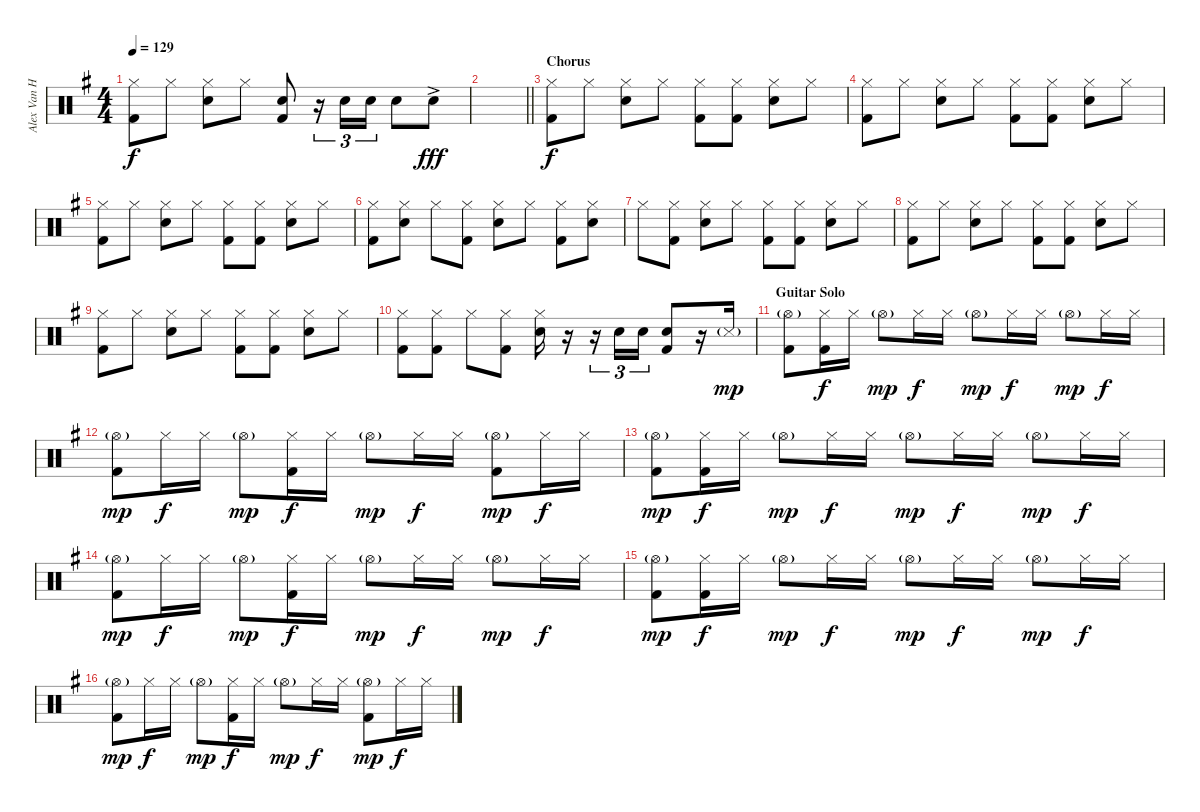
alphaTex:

\track ("Alex Van Halen" "Alex Van H") {instrument percussion}
\staff {score}
\articulation defaults
\ts (4 4)
\tempo 129
\clef neutral
\ks eminor
("Hi-Hat (closed)" "Kick (hit) 2").8{dy f} "Hi-Hat (closed)".8 ("Hi-Hat (closed)" "Snare (hit) 2").8 "Hi-Hat (closed)".8 ("Snare (hit) 2" "Kick (hit) 2").8 r.16{tu (3 2)} "Electric Snare (hit)".16{tu (3 2)} "Electric Snare (hit)".16{tu (3 2)} "Electric Snare (hit)".8 "Snare (hit) 2"{ac}.8{dy fff} |
\barLineRight lightlight
|
\section ("" "Chorus")
("Hi-Hat (closed)" "Kick (hit) 2").8{dy f} "Hi-Hat (closed)".8 ("Hi-Hat (closed)" "Snare (hit) 2").8 "Hi-Hat (closed)".8 ("Hi-Hat (closed)" "Kick (hit) 2").8 ("Hi-Hat (closed)" "Kick (hit) 2").8 ("Hi-Hat (closed)" "Snare (hit) 2").8 "Hi-Hat (closed)".8 |
("Hi-Hat (closed)" "Kick (hit) 2").8 "Hi-Hat (closed)".8 ("Hi-Hat (closed)" "Snare (hit) 2").8 "Hi-Hat (closed)".8 ("Hi-Hat (closed)" "Kick (hit) 2").8 ("Hi-Hat (closed)" "Kick (hit) 2").8 ("Hi-Hat (closed)" "Snare (hit) 2").8 "Hi-Hat (closed)".8 |
("Hi-Hat (closed)" "Kick (hit) 2").8 "Hi-Hat (closed)".8 ("Hi-Hat (closed)" "Snare (hit) 2").8 "Hi-Hat (closed)".8 ("Hi-Hat (closed)" "Kick (hit) 2").8 ("Hi-Hat (closed)" "Kick (hit) 2").8 ("Hi-Hat (closed)" "Snare (hit) 2").8 "Hi-Hat (closed)".8 |
("Hi-Hat (closed)" "Kick (hit) 2").8 ("Hi-Hat (closed)" "Snare (hit) 2").8 "Hi-Hat (closed)".8 ("Hi-Hat (closed)" "Kick (hit) 2").8 ("Hi-Hat (closed)" "Snare (hit) 2").8 "Hi-Hat (closed)".8 ("Hi-Hat (closed)" "Kick (hit) 2").8 ("Hi-Hat (closed)" "Snare (hit) 2").8 |
"Hi-Hat (closed)".8 ("Hi-Hat (closed)" "Kick (hit) 2").8 ("Hi-Hat (closed)" "Snare (hit) 2").8 "Hi-Hat (closed)".8 ("Hi-Hat (closed)" "Kick (hit) 2").8 ("Hi-Hat (closed)" "Kick (hit) 2").8 ("Hi-Hat (closed)" "Snare (hit) 2").8 "Hi-Hat (closed)".8 |
("Hi-Hat (closed)" "Kick (hit) 2").8 "Hi-Hat (closed)".8 ("Hi-Hat (closed)" "Snare (hit) 2").8 "Hi-Hat (closed)".8 ("Hi-Hat (closed)" "Kick (hit) 2").8 ("Hi-Hat (closed)" "Kick (hit) 2").8 ("Hi-Hat (closed)" "Snare (hit) 2").8 "Hi-Hat (closed)".8 |
("Hi-Hat (closed)" "Kick (hit) 2").8 "Hi-Hat (closed)".8 ("Hi-Hat (closed)" "Snare (hit) 2").8 "Hi-Hat (closed)".8 ("Hi-Hat (closed)" "Kick (hit) 2").8 ("Hi-Hat (closed)" "Kick (hit) 2").8 ("Hi-Hat (closed)" "Snare (hit) 2").8 "Hi-Hat (closed)".8 |
("Hi-Hat (closed)" "Kick (hit) 2").8 ("Hi-Hat (closed)" "Kick (hit) 2").8 "Hi-Hat (closed)".8 ("Hi-Hat (closed)" "Kick (hit) 2").8 ("Hi-Hat (closed)" "Snare (hit) 2").16 r.16 r.16{tu (3 2)} "Electric Snare (hit)".16{tu (3 2)} "Electric Snare (hit)".16{tu (3 2)} ("Snare (hit) 2" "Kick (hit) 2").8 r.16 "Snare (side stick) 3"{g}.16{dy mp} |
\section ("" "Guitar Solo")
("Hi-Hat (open)"{g} "Kick (hit) 2").8 ("Hi-Hat (closed)" "Kick (hit) 2").16{dy f} "Hi-Hat (closed)".16 "Hi-Hat (open)"{g}.8{dy mp} "Hi-Hat (closed)".16{dy f} "Hi-Hat (closed)".16 "Hi-Hat (open)"{g}.8{dy mp} "Hi-Hat (closed)".16{dy f} "Hi-Hat (closed)".16 "Hi-Hat (open)"{g}.8{dy mp} "Hi-Hat (closed)".16{dy f} "Hi-Hat (closed)".16 |
("Hi-Hat (open)"{g} "Kick (hit) 2").8{dy mp} "Hi-Hat (closed)".16{dy f} "Hi-Hat (closed)".16 "Hi-Hat (open)"{g}.8{dy mp} ("Hi-Hat (closed)" "Kick (hit) 2").16{dy f} "Hi-Hat (closed)".16 "Hi-Hat (open)"{g}.8{dy mp} "Hi-Hat (closed)".16{dy f} "Hi-Hat (closed)".16 ("Hi-Hat (open)"{g} "Kick (hit) 2").8{dy mp} "Hi-Hat (closed)".16{dy f} "Hi-Hat (closed)".16 |
("Hi-Hat (open)"{g} "Kick (hit) 2").8{dy mp} ("Hi-Hat (closed)" "Kick (hit) 2").16{dy f} "Hi-Hat (closed)".16 "Hi-Hat (open)"{g}.8{dy mp} "Hi-Hat (closed)".16{dy f} "Hi-Hat (closed)".16 "Hi-Hat (open)"{g}.8{dy mp} "Hi-Hat (closed)".16{dy f} "Hi-Hat (closed)".16 "Hi-Hat (open)"{g}.8{dy mp} "Hi-Hat (closed)".16{dy f} "Hi-Hat (closed)".16 |
("Hi-Hat (open)"{g} "Kick (hit) 2").8{dy mp} "Hi-Hat (closed)".16{dy f} "Hi-Hat (closed)".16 "Hi-Hat (open)"{g}.8{dy mp} ("Hi-Hat (closed)" "Kick (hit) 2").16{dy f} "Hi-Hat (closed)".16 "Hi-Hat (open)"{g}.8{dy mp} "Hi-Hat (closed)".16{dy f} "Hi-Hat (closed)".16 "Hi-Hat (open)"{g}.8{dy mp} "Hi-Hat (closed)".16{dy f} "Hi-Hat (closed)".16 |
("Hi-Hat (open)"{g} "Kick (hit) 2").8{dy mp} ("Hi-Hat (closed)" "Kick (hit) 2").16{dy f} "Hi-Hat (closed)".16 "Hi-Hat (open)"{g}.8{dy mp} "Hi-Hat (closed)".16{dy f} "Hi-Hat (closed)".16 "Hi-Hat (open)"{g}.8{dy mp} "Hi-Hat (closed)".16{dy f} "Hi-Hat (closed)".16 "Hi-Hat (open)"{g}.8{dy mp} "Hi-Hat (closed)".16{dy f} "Hi-Hat (closed)".16 |
("Hi-Hat (open)"{g} "Kick (hit) 2").8{dy mp} "Hi-Hat (closed)".16{dy f} "Hi-Hat (closed)".16 "Hi-Hat (open)"{g}.8{dy mp} ("Hi-Hat (closed)" "Kick (hit) 2").16{dy f} "Hi-Hat (closed)".16 "Hi-Hat (open)"{g}.8{dy mp} "Hi-Hat (closed)".16{dy f} "Hi-Hat (closed)".16 ("Hi-Hat (open)"{g} "Kick (hit) 2").8{dy mp} "Hi-Hat (closed)".16{dy f} "Hi-Hat (closed)".16
